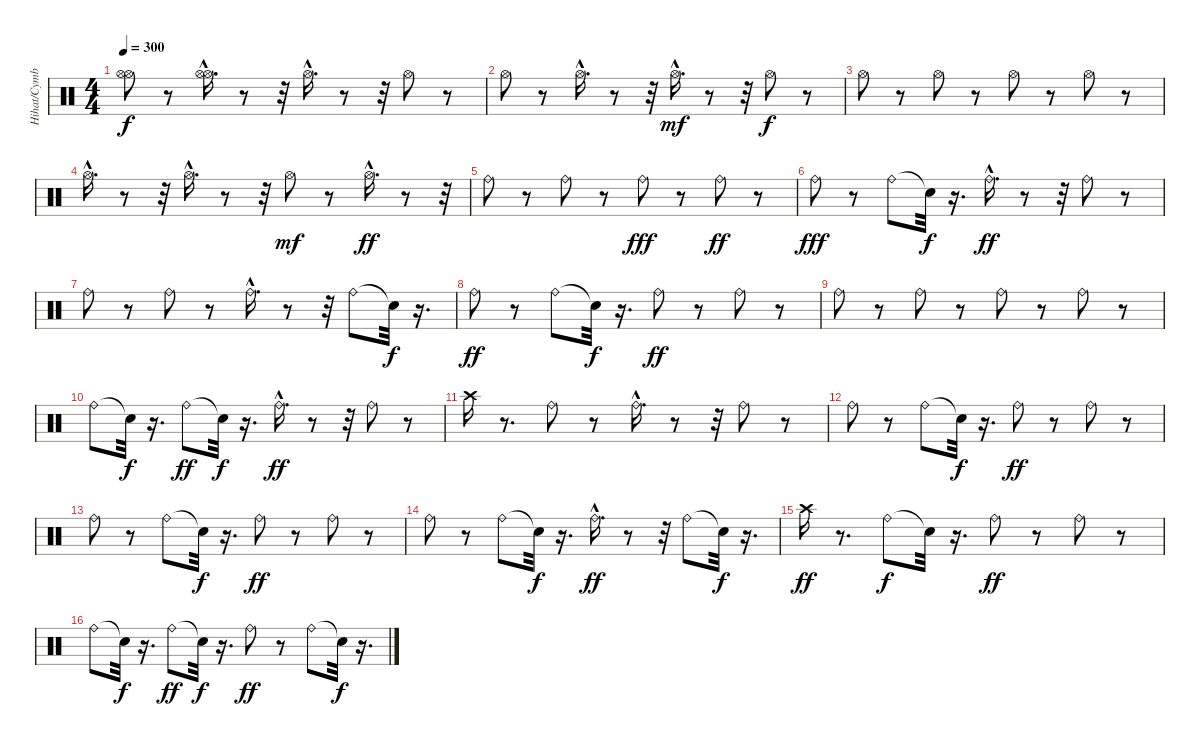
\track ("Hihat/Cymbals/Tambourine" "Hihat/Cymb") {instrument percussion}
\staff {score}
\articulation defaults
\ts (4 4)
\tempo 300
\clef neutral
\ks c
("Hi-Hat (open)" "Hi-Hat (open)").8{dy f} r.8 ("Hi-Hat (open)"{hac} "Hi-Hat (open)"{hac}).16{d} r.8 r.32 "Hi-Hat (open)"{hac}.16{d} r.8 r.32 "Hi-Hat (open)".8 r.8 |
"Hi-Hat (open)".8 r.8 "Hi-Hat (open)"{hac}.16{d} r.8 r.32 "Hi-Hat (open)"{hac}.16{d dy mf} r.8 r.32 "Hi-Hat (open)".8{dy f} r.8 |
"Hi-Hat (open)".8 r.8 "Hi-Hat (open)".8 r.8 "Hi-Hat (open)".8 r.8 "Hi-Hat (open)".8 r.8 |
"Hi-Hat (open)"{hac}.16{d} r.8 r.32 "Hi-Hat (open)"{hac}.16{d} r.8 r.32 "Hi-Hat (open)".8{dy mf} r.8 "Hi-Hat (open)"{hac}.16{d dy ff} r.8 r.32 |
"Ride (bell)".8 r.8 "Ride (bell)".8 r.8 "Ride (bell)".8{dy fff} r.8 "Ride (bell)".8{dy ff} r.8 |
"Ride (bell)".8{dy fff} r.8 "Ride (bell)".8 "Snare (hit)"{t}.32{dy f} r.16{d} "Ride (bell)"{hac}.16{d dy ff} r.8 r.32 "Ride (bell)".8 r.8 |
"Ride (bell)".8 r.8 "Ride (bell)".8 r.8 "Ride (bell)"{hac}.16{d} r.8 r.32 "Ride (bell)".8 "Snare (hit)"{t}.32{dy f} r.16{d} |
"Ride (bell)".8{dy ff} r.8 "Ride (bell)".8 "Snare (hit)"{t}.32{dy f} r.16{d} "Ride (bell)".8{dy ff} r.8 "Ride (bell)".8 r.8 |
"Ride (bell)".8 r.8 "Ride (bell)".8 r.8 "Ride (bell)".8 r.8 "Ride (bell)".8 r.8 |
"Ride (bell)".8 "Snare (hit)"{t}.32{dy f} r.16{d} "Ride (bell)".8{dy ff} "Snare (hit)"{t}.32{dy f} r.16{d} "Ride (bell)"{hac}.16{d dy ff} r.8 r.32 "Ride (bell)".8 r.8 |
"Crash high (hit)".16 r.8{d} "Ride (bell)".8 r.8 "Ride (bell)"{hac}.16{d} r.8 r.32 "Ride (bell)".8 r.8 |
"Ride (bell)".8 r.8 "Ride (bell)".8 "Snare (hit)"{t}.32{dy f} r.16{d} "Ride (bell)".8{dy ff} r.8 "Ride (bell)".8 r.8 |
"Ride (bell)".8 r.8 "Ride (bell)".8 "Snare (hit)"{t}.32{dy f} r.16{d} "Ride (bell)".8{dy ff} r.8 "Ride (bell)".8 r.8 |
"Ride (bell)".8 r.8 "Ride (bell)".8 "Snare (hit)"{t}.32{dy f} r.16{d} "Ride (bell)"{hac}.16{d dy ff} r.8 r.32 "Ride (bell)".8 "Snare (hit)"{t}.32{dy f} r.16{d} |
"Crash high (hit)".16{dy ff} r.8{d} "Ride (bell)".8{dy f} "Snare (hit)"{t}.32 r.16{d} "Ride (bell)".8{dy ff} r.8 "Ride (bell)".8 r.8 |
"Ride (bell)".8 "Snare (hit)"{t}.32{dy f} r.16{d} "Ride (bell)".8{dy ff} "Snare (hit)"{t}.32{dy f} r.16{d} "Ride (bell)".8{dy ff} r.8 "Ride (bell)".8 "Snare (hit)"{t}.32{dy f} r.16{d}
